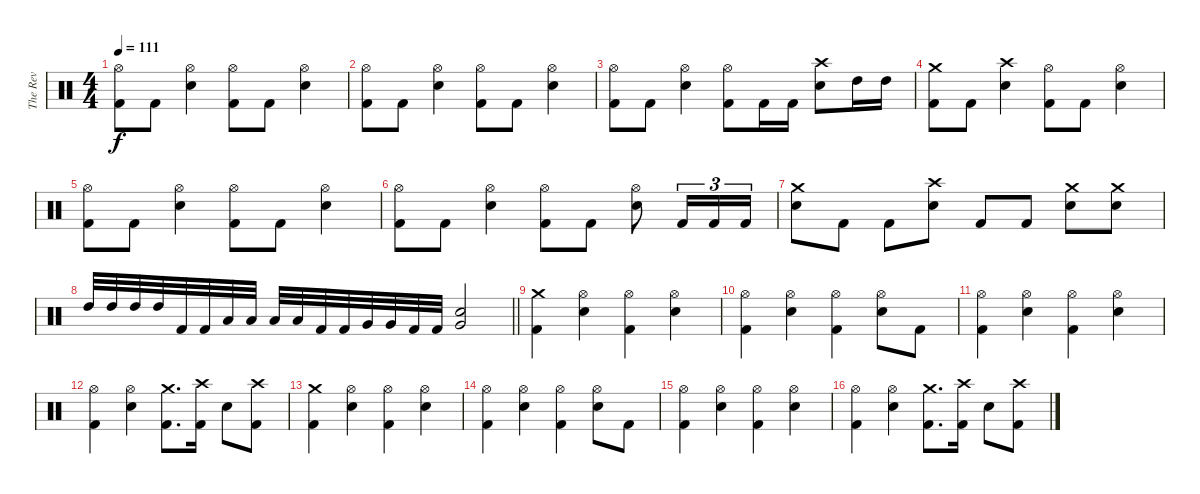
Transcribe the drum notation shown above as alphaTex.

\track ("The Rev" "The Rev") {instrument percussion}
\staff {score}
\articulation defaults
\ts (4 4)
\tempo 111
\clef neutral
\ks c
("Hi-Hat (open)" "Kick (hit) 2").8{dy f} "Kick (hit) 2".8 ("Hi-Hat (open)" "Snare (hit) 2").4 ("Hi-Hat (open)" "Kick (hit) 2").8 "Kick (hit) 2".8 ("Hi-Hat (open)" "Snare (hit) 2").4 |
("Hi-Hat (open)" "Kick (hit) 2").8 "Kick (hit) 2".8 ("Hi-Hat (open)" "Snare (hit) 2").4 ("Hi-Hat (open)" "Kick (hit) 2").8 "Kick (hit) 2".8 ("Hi-Hat (open)" "Snare (hit) 2").4 |
("Hi-Hat (open)" "Kick (hit) 2").8 "Kick (hit) 2".8 ("Hi-Hat (open)" "Snare (hit) 2").4 ("Hi-Hat (open)" "Kick (hit) 2").8 "Kick (hit) 2".16 "Kick (hit) 2".16 ("Crash high (hit)" "Snare (hit) 2").8 "High Tom (hit)".16 "High Tom (hit)".16 |
("Crash medium (hit)" "Kick (hit) 2").8 "Kick (hit) 2".8 ("Crash high (hit)" "Snare (hit) 2").4 ("Hi-Hat (open)" "Kick (hit) 2").8 "Kick (hit) 2".8 ("Hi-Hat (open)" "Snare (hit) 2").4 |
("Hi-Hat (open)" "Kick (hit) 2").8 "Kick (hit) 2".8 ("Hi-Hat (open)" "Snare (hit) 2").4 ("Hi-Hat (open)" "Kick (hit) 2").8 "Kick (hit) 2".8 ("Hi-Hat (open)" "Snare (hit) 2").4 |
("Hi-Hat (open)" "Kick (hit) 2").8 "Kick (hit) 2".8 ("Hi-Hat (open)" "Snare (hit) 2").4 ("Hi-Hat (open)" "Kick (hit) 2").8 "Kick (hit) 2".8 ("Hi-Hat (open)" "Snare (hit) 2").8 "Kick (hit) 2".16{tu (3 2)} "Kick (hit) 2".16{tu (3 2)} "Kick (hit) 2".16{tu (3 2)} |
("Crash medium (hit)" "Snare (hit) 2").8 "Kick (hit) 2".8 "Kick (hit) 2".8 ("Crash high (hit)" "Snare (hit) 2").8 "Kick (hit) 2".8 "Kick (hit) 2".8 ("Crash medium (hit)" "Snare (hit) 2").8 ("Crash medium (hit)" "Snare (hit) 2").8 |
\barLineRight lightlight "High Tom (hit)".32 "High Tom (hit)".32 "High Tom (hit)".32 "High Tom (hit)".32 "Kick (hit) 2".32 "Kick (hit) 2".32 "Low Tom (hit)".32 "Low Tom (hit)".32 "Low Tom (hit)".32 "Low Tom (hit)".32 "Kick (hit) 2".32 "Kick (hit) 2".32 "Very Low Tom (hit)".32 "Very Low Tom (hit)".32 "Kick (hit) 2".32 "Kick (hit) 2".32
("Snare (hit) 2" "Very Low Tom (hit)").2 |
("Crash medium (hit)" "Kick (hit) 2").4 ("Hi-Hat (open)" "Snare (hit) 2").4 ("Hi-Hat (open)" "Kick (hit) 2").4 ("Hi-Hat (open)" "Snare (hit) 2").4 |
("Hi-Hat (open)" "Kick (hit) 2").4 ("Hi-Hat (open)" "Snare (hit) 2").4 ("Hi-Hat (open)" "Kick (hit) 2").4 ("Hi-Hat (open)" "Snare (hit) 2").8 "Kick (hit) 2".8 |
("Hi-Hat (open)" "Kick (hit) 2").4 ("Hi-Hat (open)" "Snare (hit) 2").4 ("Hi-Hat (open)" "Kick (hit) 2").4 ("Hi-Hat (open)" "Snare (hit) 2").4 |
("Hi-Hat (open)" "Kick (hit) 2").4 ("Hi-Hat (open)" "Snare (hit) 2").4 ("Crash medium (hit)" "Kick (hit) 2").8{d} ("Crash high (hit)" "Kick (hit) 2").16 "Snare (hit) 2".8 ("Crash high (hit)" "Kick (hit) 2").8 |
("Crash medium (hit)" "Kick (hit) 2").4 ("Hi-Hat (open)" "Snare (hit) 2").4 ("Hi-Hat (open)" "Kick (hit) 2").4 ("Hi-Hat (open)" "Snare (hit) 2").4 |
("Hi-Hat (open)" "Kick (hit) 2").4 ("Hi-Hat (open)" "Snare (hit) 2").4 ("Hi-Hat (open)" "Kick (hit) 2").4 ("Hi-Hat (open)" "Snare (hit) 2").8 "Kick (hit) 2".8 |
("Hi-Hat (open)" "Kick (hit) 2").4 ("Hi-Hat (open)" "Snare (hit) 2").4 ("Hi-Hat (open)" "Kick (hit) 2").4 ("Hi-Hat (open)" "Snare (hit) 2").4 |
("Hi-Hat (open)" "Kick (hit) 2").4 ("Hi-Hat (open)" "Snare (hit) 2").4 ("Crash medium (hit)" "Kick (hit) 2").8{d} ("Crash high (hit)" "Kick (hit) 2").16 "Snare (hit) 2".8 ("Crash high (hit)" "Kick (hit) 2").8
